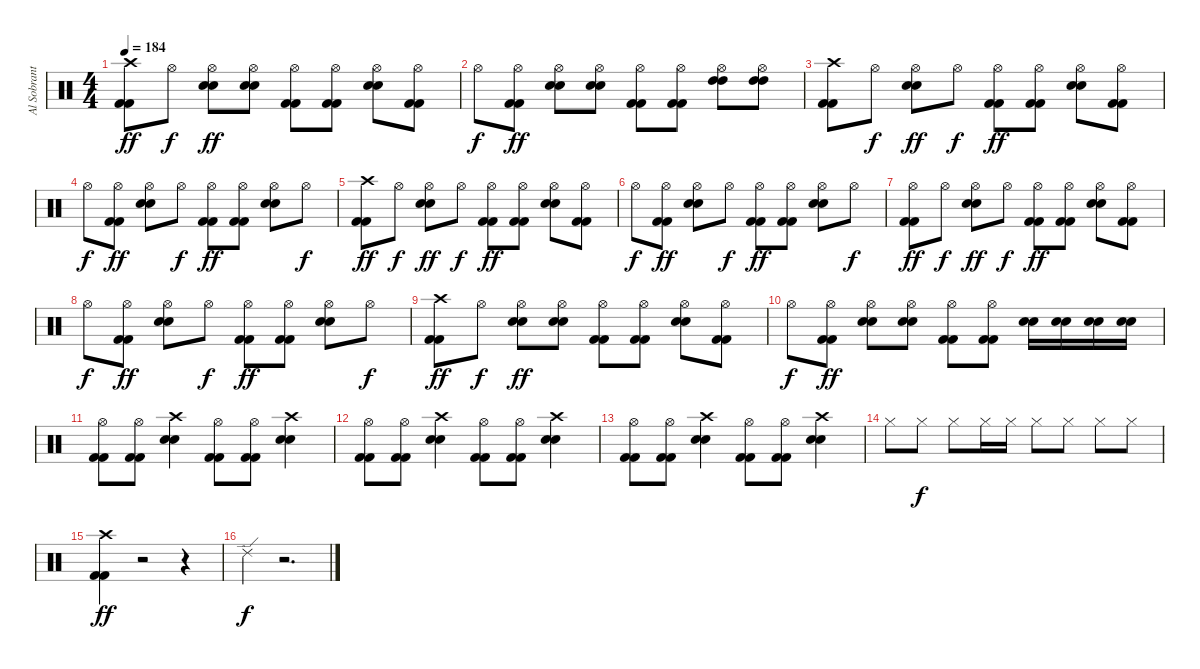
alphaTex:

\track ("Al Sobrante (Drums)" "Al Sobrant") {instrument percussion}
\staff {score}
\articulation defaults
\ts (4 4)
\tempo 184
\clef neutral
\ks c
("Kick (hit) 2" "Kick (hit) 2" "Crash high (hit)").8{dy ff} "Hi-Hat (open)".8{dy f} ("Electric Snare (hit)" "Electric Snare (hit)" "Hi-Hat (open)").8{dy ff} ("Electric Snare (hit)" "Electric Snare (hit)" "Hi-Hat (open)").8 ("Kick (hit) 2" "Kick (hit) 2" "Hi-Hat (open)").8 ("Kick (hit) 2" "Kick (hit) 2" "Hi-Hat (open)").8 ("Electric Snare (hit)" "Electric Snare (hit)" "Hi-Hat (open)").8 ("Kick (hit) 2" "Kick (hit) 2" "Hi-Hat (open)").8 |
"Hi-Hat (open)".8{dy f} ("Kick (hit) 2" "Kick (hit) 2" "Hi-Hat (open)").8{dy ff} ("Electric Snare (hit)" "Electric Snare (hit)" "Hi-Hat (open)").8 ("Electric Snare (hit)" "Electric Snare (hit)" "Hi-Hat (open)").8 ("Kick (hit) 2" "Kick (hit) 2" "Hi-Hat (open)").8 ("Kick (hit) 2" "Kick (hit) 2" "Hi-Hat (open)").8 ("High Tom (hit)" "High Tom (hit)" "Hi-Hat (open)").8 ("High Tom (hit)" "High Tom (hit)" "Hi-Hat (open)").8 |
("Kick (hit) 2" "Kick (hit) 2" "Crash high (hit)").8 "Hi-Hat (open)".8{dy f} ("Electric Snare (hit)" "Electric Snare (hit)" "Hi-Hat (open)").8{dy ff} "Hi-Hat (open)".8{dy f} ("Kick (hit) 2" "Kick (hit) 2" "Hi-Hat (open)").8{dy ff} ("Kick (hit) 2" "Kick (hit) 2" "Hi-Hat (open)").8 ("Electric Snare (hit)" "Electric Snare (hit)" "Hi-Hat (open)").8 ("Kick (hit) 2" "Kick (hit) 2" "Hi-Hat (open)").8 |
"Hi-Hat (open)".8{dy f} ("Kick (hit) 2" "Kick (hit) 2" "Hi-Hat (open)").8{dy ff} ("Electric Snare (hit)" "Electric Snare (hit)" "Hi-Hat (open)").8 "Hi-Hat (open)".8{dy f} ("Kick (hit) 2" "Kick (hit) 2" "Hi-Hat (open)").8{dy ff} ("Kick (hit) 2" "Kick (hit) 2" "Hi-Hat (open)").8 ("Electric Snare (hit)" "Electric Snare (hit)" "Hi-Hat (open)").8 "Hi-Hat (open)".8{dy f} |
("Kick (hit) 2" "Kick (hit) 2" "Crash high (hit)").8{dy ff} "Hi-Hat (open)".8{dy f} ("Electric Snare (hit)" "Electric Snare (hit)" "Hi-Hat (open)").8{dy ff} "Hi-Hat (open)".8{dy f} ("Kick (hit) 2" "Kick (hit) 2" "Hi-Hat (open)").8{dy ff} ("Kick (hit) 2" "Kick (hit) 2" "Hi-Hat (open)").8 ("Electric Snare (hit)" "Electric Snare (hit)" "Hi-Hat (open)").8 ("Kick (hit) 2" "Kick (hit) 2" "Hi-Hat (open)").8 |
"Hi-Hat (open)".8{dy f} ("Kick (hit) 2" "Kick (hit) 2" "Hi-Hat (open)").8{dy ff} ("Electric Snare (hit)" "Electric Snare (hit)" "Hi-Hat (open)").8 "Hi-Hat (open)".8{dy f} ("Kick (hit) 2" "Kick (hit) 2" "Hi-Hat (open)").8{dy ff} ("Kick (hit) 2" "Kick (hit) 2" "Hi-Hat (open)").8 ("Electric Snare (hit)" "Electric Snare (hit)" "Hi-Hat (open)").8 "Hi-Hat (open)".8{dy f} |
("Kick (hit) 2" "Kick (hit) 2" "Hi-Hat (open)").8{dy ff} "Hi-Hat (open)".8{dy f} ("Electric Snare (hit)" "Electric Snare (hit)" "Hi-Hat (open)").8{dy ff} "Hi-Hat (open)".8{dy f} ("Kick (hit) 2" "Kick (hit) 2" "Hi-Hat (open)").8{dy ff} ("Kick (hit) 2" "Kick (hit) 2" "Hi-Hat (open)").8 ("Electric Snare (hit)" "Electric Snare (hit)" "Hi-Hat (open)").8 ("Kick (hit) 2" "Kick (hit) 2" "Hi-Hat (open)").8 |
"Hi-Hat (open)".8{dy f} ("Kick (hit) 2" "Kick (hit) 2" "Hi-Hat (open)").8{dy ff} ("Electric Snare (hit)" "Electric Snare (hit)" "Hi-Hat (open)").8 "Hi-Hat (open)".8{dy f} ("Kick (hit) 2" "Kick (hit) 2" "Hi-Hat (open)").8{dy ff} ("Kick (hit) 2" "Kick (hit) 2" "Hi-Hat (open)").8 ("Electric Snare (hit)" "Electric Snare (hit)" "Hi-Hat (open)").8 "Hi-Hat (open)".8{dy f} |
("Kick (hit) 2" "Kick (hit) 2" "Crash high (hit)").8{dy ff} "Hi-Hat (open)".8{dy f} ("Electric Snare (hit)" "Electric Snare (hit)" "Hi-Hat (open)").8{dy ff} ("Electric Snare (hit)" "Electric Snare (hit)" "Hi-Hat (open)").8 ("Kick (hit) 2" "Kick (hit) 2" "Hi-Hat (open)").8 ("Kick (hit) 2" "Kick (hit) 2" "Hi-Hat (open)").8 ("Electric Snare (hit)" "Electric Snare (hit)" "Hi-Hat (open)").8 ("Kick (hit) 2" "Kick (hit) 2" "Hi-Hat (open)").8 |
"Hi-Hat (open)".8{dy f} ("Kick (hit) 2" "Kick (hit) 2" "Hi-Hat (open)").8{dy ff} ("Electric Snare (hit)" "Electric Snare (hit)" "Hi-Hat (open)").8 ("Electric Snare (hit)" "Electric Snare (hit)" "Hi-Hat (open)").8 ("Kick (hit) 2" "Kick (hit) 2" "Hi-Hat (open)").8 ("Kick (hit) 2" "Kick (hit) 2" "Hi-Hat (open)").8 ("Electric Snare (hit)" "Electric Snare (hit)").16 ("Electric Snare (hit)" "Electric Snare (hit)").16 ("Electric Snare (hit)" "Electric Snare (hit)").16 ("Electric Snare (hit)" "Electric Snare (hit)").16 |
("Kick (hit) 2" "Kick (hit) 2" "Hi-Hat (open)").8 ("Kick (hit) 2" "Kick (hit) 2" "Hi-Hat (open)").8 ("Electric Snare (hit)" "Electric Snare (hit)" "Crash high (hit)").4 ("Kick (hit) 2" "Kick (hit) 2" "Hi-Hat (open)").8 ("Kick (hit) 2" "Kick (hit) 2" "Hi-Hat (open)").8 ("Electric Snare (hit)" "Electric Snare (hit)" "Crash high (hit)").4 |
("Kick (hit) 2" "Kick (hit) 2" "Hi-Hat (open)").8 ("Kick (hit) 2" "Kick (hit) 2" "Hi-Hat (open)").8 ("Electric Snare (hit)" "Electric Snare (hit)" "Crash high (hit)").4 ("Kick (hit) 2" "Kick (hit) 2" "Hi-Hat (open)").8 ("Kick (hit) 2" "Kick (hit) 2" "Hi-Hat (open)").8 ("Electric Snare (hit)" "Electric Snare (hit)" "Crash high (hit)").4 |
("Kick (hit) 2" "Kick (hit) 2" "Hi-Hat (open)").8 ("Kick (hit) 2" "Kick (hit) 2" "Hi-Hat (open)").8 ("Electric Snare (hit)" "Electric Snare (hit)" "Crash high (hit)").4 ("Kick (hit) 2" "Kick (hit) 2" "Hi-Hat (open)").8 ("Kick (hit) 2" "Kick (hit) 2" "Hi-Hat (open)").8 ("Electric Snare (hit)" "Electric Snare (hit)" "Crash high (hit)").4 |
"Hi-Hat (closed)".8 "Hi-Hat (closed)".8{dy f} "Hi-Hat (closed)".8 "Hi-Hat (closed)".16 "Hi-Hat (closed)".16 "Hi-Hat (closed)".8 "Hi-Hat (closed)".8 "Hi-Hat (closed)".8 "Hi-Hat (closed)".8 |
("Kick (hit) 2" "Kick (hit) 2" "Crash high (hit)").4{dy ff} r.2 r.4 |
"Ride (edge) 2".4{dy f} r.2{d}
